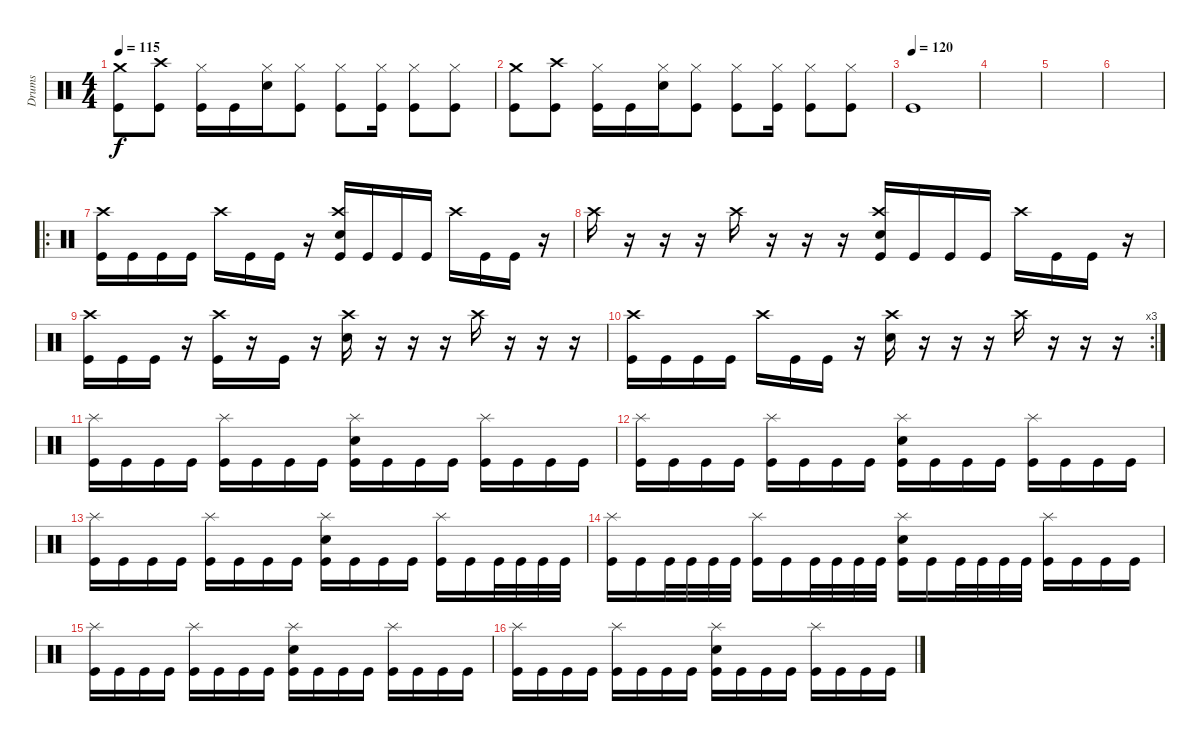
\track ("Drums" "Drums") {instrument percussion}
\staff {score}
\articulation defaults
\ts (4 4)
\tempo 115
\clef neutral
\ks c
("Crash medium (hit)" "Kick (hit)").8{dy f} ("Crash high (hit)" "Kick (hit)").8 ("Hi-Hat (closed)" "Kick (hit)").16 "Kick (hit)".16 ("Hi-Hat (closed)" "Snare (hit) 2").16 ("Hi-Hat (closed)" "Kick (hit)").8 ("Hi-Hat (closed)" "Kick (hit)").8 ("Hi-Hat (closed)" "Kick (hit)").16 ("Hi-Hat (closed)" "Kick (hit)").8 ("Hi-Hat (closed)" "Kick (hit)").8 |
("Crash medium (hit)" "Kick (hit)").8 ("Crash high (hit)" "Kick (hit)").8 ("Hi-Hat (closed)" "Kick (hit)").16 "Kick (hit)".16 ("Hi-Hat (closed)" "Snare (hit) 2").16 ("Hi-Hat (closed)" "Kick (hit)").8 ("Hi-Hat (closed)" "Kick (hit)").8 ("Hi-Hat (closed)" "Kick (hit)").16 ("Hi-Hat (closed)" "Kick (hit)").8 ("Hi-Hat (closed)" "Kick (hit)").8 |
\tempo (120)
"Kick (hit)".1 |
|
|
|
\ro
("Crash high (hit)" "Kick (hit)").16 "Kick (hit)".16 "Kick (hit)".16 "Kick (hit)".16 "Crash high (hit)".16 "Kick (hit)".16 "Kick (hit)".16 r.16 ("Crash high (hit)" "Snare (hit) 2" "Kick (hit)").16 "Kick (hit)".16 "Kick (hit)".16 "Kick (hit)".16 "Crash high (hit)".16 "Kick (hit)".16 "Kick (hit)".16 r.16 |
"Crash high (hit)".16 r.16 r.16 r.16 "Crash high (hit)".16 r.16 r.16 r.16 ("Crash high (hit)" "Snare (hit) 2" "Kick (hit)").16 "Kick (hit)".16 "Kick (hit)".16 "Kick (hit)".16 "Crash high (hit)".16 "Kick (hit)".16 "Kick (hit)".16 r.16 |
("Crash high (hit)" "Kick (hit)").16 "Kick (hit)".16 "Kick (hit)".16 r.16 ("Crash high (hit)" "Kick (hit)").16 r.16 "Kick (hit)".16 r.16 ("Crash high (hit)" "Snare (hit) 2").16 r.16 r.16 r.16 "Crash high (hit)".16 r.16 r.16 r.16 |
\rc 3
("Crash high (hit)" "Kick (hit)").16 "Kick (hit)".16 "Kick (hit)".16 "Kick (hit)".16 "Crash high (hit)".16 "Kick (hit)".16 "Kick (hit)".16 r.16 ("Crash high (hit)" "Snare (hit) 2").16 r.16 r.16 r.16 "Crash high (hit)".16 r.16 r.16 r.16 |
("Splash (hit)" "Kick (hit)").16 "Kick (hit)".16 "Kick (hit)".16 "Kick (hit)".16 ("Splash (hit)" "Kick (hit)").16 "Kick (hit)".16 "Kick (hit)".16 "Kick (hit)".16 ("Splash (hit)" "Snare (hit) 2" "Kick (hit)").16 "Kick (hit)".16 "Kick (hit)".16 "Kick (hit)".16 ("Splash (hit)" "Kick (hit)").16 "Kick (hit)".16 "Kick (hit)".16 "Kick (hit)".16 |
("Splash (hit)" "Kick (hit)").16 "Kick (hit)".16 "Kick (hit)".16 "Kick (hit)".16 ("Splash (hit)" "Kick (hit)").16 "Kick (hit)".16 "Kick (hit)".16 "Kick (hit)".16 ("Splash (hit)" "Snare (hit) 2" "Kick (hit)").16 "Kick (hit)".16 "Kick (hit)".16 "Kick (hit)".16 ("Splash (hit)" "Kick (hit)").16 "Kick (hit)".16 "Kick (hit)".16 "Kick (hit)".16 |
("Splash (hit)" "Kick (hit)").16 "Kick (hit)".16 "Kick (hit)".16 "Kick (hit)".16 ("Splash (hit)" "Kick (hit)").16 "Kick (hit)".16 "Kick (hit)".16 "Kick (hit)".16 ("Splash (hit)" "Snare (hit) 2" "Kick (hit)").16 "Kick (hit)".16 "Kick (hit)".16 "Kick (hit)".16 ("Splash (hit)" "Kick (hit)").16 "Kick (hit)".16 "Kick (hit)".32 "Kick (hit)".32 "Kick (hit)".32 "Kick (hit)".32 |
("Splash (hit)" "Kick (hit)").16 "Kick (hit)".16 "Kick (hit)".32 "Kick (hit)".32 "Kick (hit)".32 "Kick (hit)".32 ("Splash (hit)" "Kick (hit)").16 "Kick (hit)".16 "Kick (hit)".32 "Kick (hit)".32 "Kick (hit)".32 "Kick (hit)".32 ("Splash (hit)" "Snare (hit) 2" "Kick (hit)").16 "Kick (hit)".16 "Kick (hit)".32 "Kick (hit)".32 "Kick (hit)".32 "Kick (hit)".32 ("Splash (hit)" "Kick (hit)").16 "Kick (hit)".16 "Kick (hit)".16 "Kick (hit)".16 |
("Splash (hit)" "Kick (hit)").16 "Kick (hit)".16 "Kick (hit)".16 "Kick (hit)".16 ("Splash (hit)" "Kick (hit)").16 "Kick (hit)".16 "Kick (hit)".16 "Kick (hit)".16 ("Splash (hit)" "Snare (hit) 2" "Kick (hit)").16 "Kick (hit)".16 "Kick (hit)".16 "Kick (hit)".16 ("Splash (hit)" "Kick (hit)").16 "Kick (hit)".16 "Kick (hit)".16 "Kick (hit)".16 |
("Splash (hit)" "Kick (hit)").16 "Kick (hit)".16 "Kick (hit)".16 "Kick (hit)".16 ("Splash (hit)" "Kick (hit)").16 "Kick (hit)".16 "Kick (hit)".16 "Kick (hit)".16 ("Splash (hit)" "Snare (hit) 2" "Kick (hit)").16 "Kick (hit)".16 "Kick (hit)".16 "Kick (hit)".16 ("Splash (hit)" "Kick (hit)").16 "Kick (hit)".16 "Kick (hit)".16 "Kick (hit)".16
